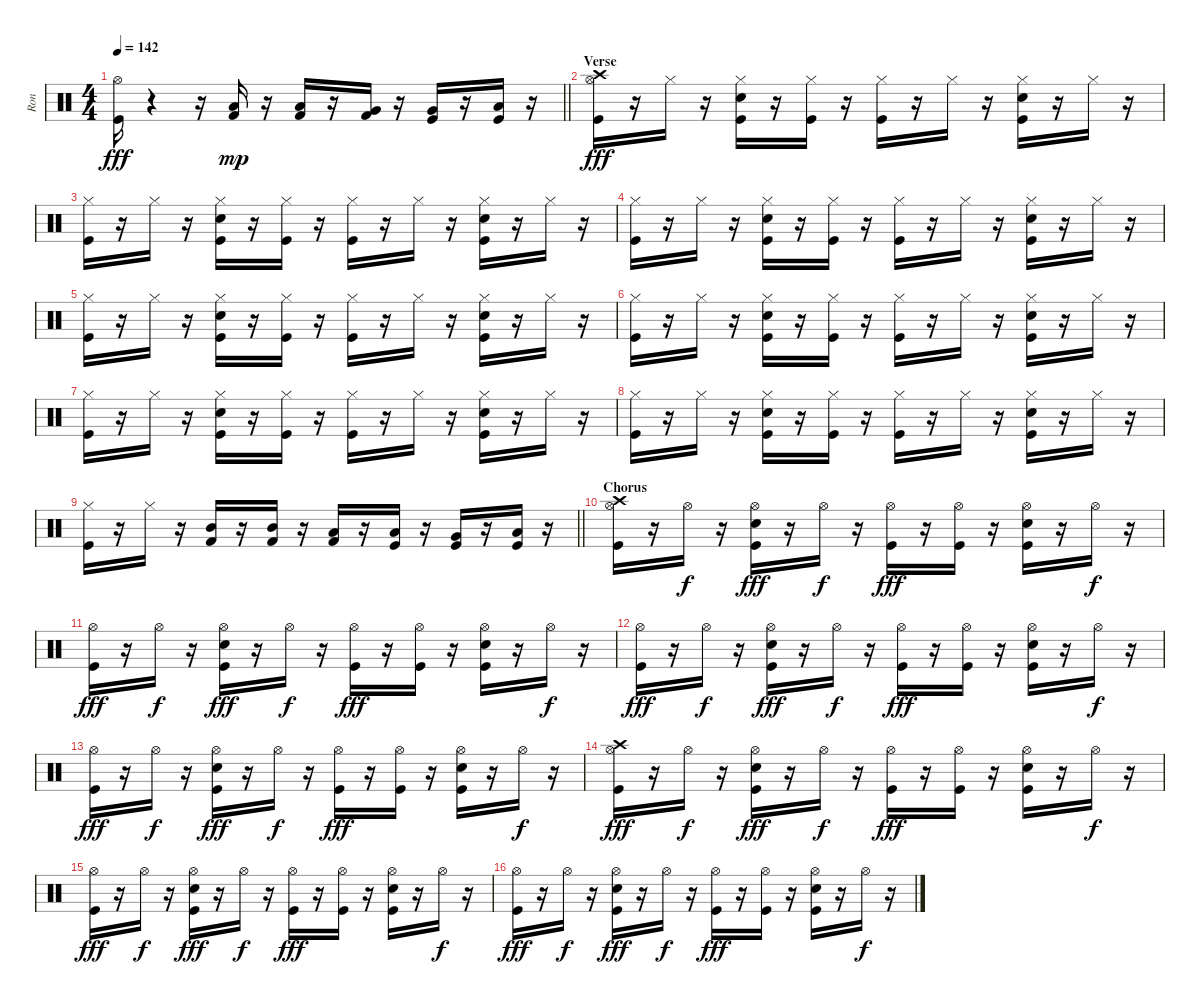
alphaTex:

\track ("Ron" "Ron") {instrument percussion}
\staff {score}
\articulation defaults
\ts (4 4)
\tempo 142
\clef neutral
\barLineRight lightlight
\ks c
("Kick (hit)" "Hi-Hat (open)").16{dy fff} r.4 r.16 ("Low Tom (hit)" "Kick (hit) 2").16{dy mp} r.16 ("Low Tom (hit)" "Kick (hit) 2").16 r.16 ("Very Low Tom (hit)" "Kick (hit) 2").16 r.16 ("Very Low Tom (hit)" "Kick (hit)").16 r.16 ("Low Floor Tom (hit)" "Kick (hit)").16 r.16 |
\section ("" "Verse")
("Kick (hit)" "Hi-Hat (open)" "Crash high (hit)").16{dy fff} r.16 "Hi-Hat (closed)".16 r.16 ("Snare (hit) 2" "Kick (hit)" "Hi-Hat (closed)").16 r.16 ("Kick (hit)" "Hi-Hat (closed)").16 r.16 ("Kick (hit)" "Hi-Hat (closed)").16 r.16 "Hi-Hat (closed)".16 r.16 ("Snare (hit) 2" "Kick (hit)" "Hi-Hat (closed)").16 r.16 "Hi-Hat (closed)".16 r.16 |
("Kick (hit)" "Hi-Hat (closed)").16 r.16 "Hi-Hat (closed)".16 r.16 ("Snare (hit) 2" "Kick (hit)" "Hi-Hat (closed)").16 r.16 ("Kick (hit)" "Hi-Hat (closed)").16 r.16 ("Kick (hit)" "Hi-Hat (closed)").16 r.16 "Hi-Hat (closed)".16 r.16 ("Snare (hit) 2" "Kick (hit)" "Hi-Hat (closed)").16 r.16 "Hi-Hat (closed)".16 r.16 |
("Hi-Hat (closed)" "Kick (hit)").16 r.16 "Hi-Hat (closed)".16 r.16 ("Snare (hit) 2" "Kick (hit)" "Hi-Hat (closed)").16 r.16 ("Kick (hit)" "Hi-Hat (closed)").16 r.16 ("Kick (hit)" "Hi-Hat (closed)").16 r.16 "Hi-Hat (closed)".16 r.16 ("Snare (hit) 2" "Kick (hit)" "Hi-Hat (closed)").16 r.16 "Hi-Hat (closed)".16 r.16 |
("Hi-Hat (closed)" "Kick (hit)").16 r.16 "Hi-Hat (closed)".16 r.16 ("Snare (hit) 2" "Kick (hit)" "Hi-Hat (closed)").16 r.16 ("Kick (hit)" "Hi-Hat (closed)").16 r.16 ("Kick (hit)" "Hi-Hat (closed)").16 r.16 "Hi-Hat (closed)".16 r.16 ("Snare (hit) 2" "Kick (hit)" "Hi-Hat (closed)").16 r.16 "Hi-Hat (closed)".16 r.16 |
("Hi-Hat (closed)" "Kick (hit)").16 r.16 "Hi-Hat (closed)".16 r.16 ("Snare (hit) 2" "Kick (hit)" "Hi-Hat (closed)").16 r.16 ("Kick (hit)" "Hi-Hat (closed)").16 r.16 ("Kick (hit)" "Hi-Hat (closed)").16 r.16 "Hi-Hat (closed)".16 r.16 ("Snare (hit) 2" "Kick (hit)" "Hi-Hat (closed)").16 r.16 "Hi-Hat (closed)".16 r.16 |
("Hi-Hat (closed)" "Kick (hit)").16 r.16 "Hi-Hat (closed)".16 r.16 ("Snare (hit) 2" "Kick (hit)" "Hi-Hat (closed)").16 r.16 ("Kick (hit)" "Hi-Hat (closed)").16 r.16 ("Kick (hit)" "Hi-Hat (closed)").16 r.16 "Hi-Hat (closed)".16 r.16 ("Snare (hit) 2" "Kick (hit)" "Hi-Hat (closed)").16 r.16 "Hi-Hat (closed)".16 r.16 |
("Hi-Hat (closed)" "Kick (hit)").16 r.16 "Hi-Hat (closed)".16 r.16 ("Snare (hit) 2" "Kick (hit)" "Hi-Hat (closed)").16 r.16 ("Kick (hit)" "Hi-Hat (closed)").16 r.16 ("Kick (hit)" "Hi-Hat (closed)").16 r.16 "Hi-Hat (closed)".16 r.16 ("Snare (hit) 2" "Kick (hit)" "Hi-Hat (closed)").16 r.16 "Hi-Hat (closed)".16 r.16 |
\barLineRight lightlight
("Hi-Hat (closed)" "Kick (hit)").16 r.16 "Hi-Hat (closed)".16 r.16 ("Kick (hit) 2" "Mid Tom (hit)").16 r.16 ("Kick (hit) 2" "Mid Tom (hit)").16 r.16 ("Kick (hit) 2" "Low Tom (hit)").16 r.16 ("Kick (hit)" "Low Tom (hit)").16 r.16 ("Kick (hit)" "Very Low Tom (hit)").16 r.16 ("Kick (hit)" "Low Floor Tom (hit)").16 r.16 |
\section ("" "Chorus")
("Crash high (hit)" "Hi-Hat (open)" "Kick (hit)").16 r.16 "Hi-Hat (open)".16{dy f} r.16 ("Snare (hit) 2" "Kick (hit)" "Hi-Hat (open)").16{dy fff} r.16 "Hi-Hat (open)".16{dy f} r.16 ("Kick (hit)" "Hi-Hat (open)").16{dy fff} r.16 ("Kick (hit)" "Hi-Hat (open)").16 r.16 ("Kick (hit)" "Snare (hit) 2" "Hi-Hat (open)").16 r.16 "Hi-Hat (open)".16{dy f} r.16 |
("Kick (hit)" "Hi-Hat (open)").16{dy fff} r.16 "Hi-Hat (open)".16{dy f} r.16 ("Snare (hit) 2" "Kick (hit)" "Hi-Hat (open)").16{dy fff} r.16 "Hi-Hat (open)".16{dy f} r.16 ("Kick (hit)" "Hi-Hat (open)").16{dy fff} r.16 ("Kick (hit)" "Hi-Hat (open)").16 r.16 ("Kick (hit)" "Snare (hit) 2" "Hi-Hat (open)").16 r.16 "Hi-Hat (open)".16{dy f} r.16 |
("Hi-Hat (open)" "Kick (hit)").16{dy fff} r.16 "Hi-Hat (open)".16{dy f} r.16 ("Snare (hit) 2" "Kick (hit)" "Hi-Hat (open)").16{dy fff} r.16 "Hi-Hat (open)".16{dy f} r.16 ("Kick (hit)" "Hi-Hat (open)").16{dy fff} r.16 ("Kick (hit)" "Hi-Hat (open)").16 r.16 ("Kick (hit)" "Snare (hit) 2" "Hi-Hat (open)").16 r.16 "Hi-Hat (open)".16{dy f} r.16 |
("Hi-Hat (open)" "Kick (hit)").16{dy fff} r.16 "Hi-Hat (open)".16{dy f} r.16 ("Snare (hit) 2" "Kick (hit)" "Hi-Hat (open)").16{dy fff} r.16 "Hi-Hat (open)".16{dy f} r.16 ("Kick (hit)" "Hi-Hat (open)").16{dy fff} r.16 ("Kick (hit)" "Hi-Hat (open)").16 r.16 ("Kick (hit)" "Snare (hit) 2" "Hi-Hat (open)").16 r.16 "Hi-Hat (open)".16{dy f} r.16 |
("Hi-Hat (open)" "Kick (hit)" "Crash high (hit)").16{dy fff} r.16 "Hi-Hat (open)".16{dy f} r.16 ("Snare (hit) 2" "Kick (hit)" "Hi-Hat (open)").16{dy fff} r.16 "Hi-Hat (open)".16{dy f} r.16 ("Kick (hit)" "Hi-Hat (open)").16{dy fff} r.16 ("Kick (hit)" "Hi-Hat (open)").16 r.16 ("Kick (hit)" "Snare (hit) 2" "Hi-Hat (open)").16 r.16 "Hi-Hat (open)".16{dy f} r.16 |
("Hi-Hat (open)" "Kick (hit)").16{dy fff} r.16 "Hi-Hat (open)".16{dy f} r.16 ("Snare (hit) 2" "Kick (hit)" "Hi-Hat (open)").16{dy fff} r.16 "Hi-Hat (open)".16{dy f} r.16 ("Kick (hit)" "Hi-Hat (open)").16{dy fff} r.16 ("Kick (hit)" "Hi-Hat (open)").16 r.16 ("Kick (hit)" "Snare (hit) 2" "Hi-Hat (open)").16 r.16 "Hi-Hat (open)".16{dy f} r.16 |
("Hi-Hat (open)" "Kick (hit)").16{dy fff} r.16 "Hi-Hat (open)".16{dy f} r.16 ("Snare (hit) 2" "Kick (hit)" "Hi-Hat (open)").16{dy fff} r.16 "Hi-Hat (open)".16{dy f} r.16 ("Kick (hit)" "Hi-Hat (open)").16{dy fff} r.16 ("Kick (hit)" "Hi-Hat (open)").16 r.16 ("Kick (hit)" "Snare (hit) 2" "Hi-Hat (open)").16 r.16 "Hi-Hat (open)".16{dy f} r.16
